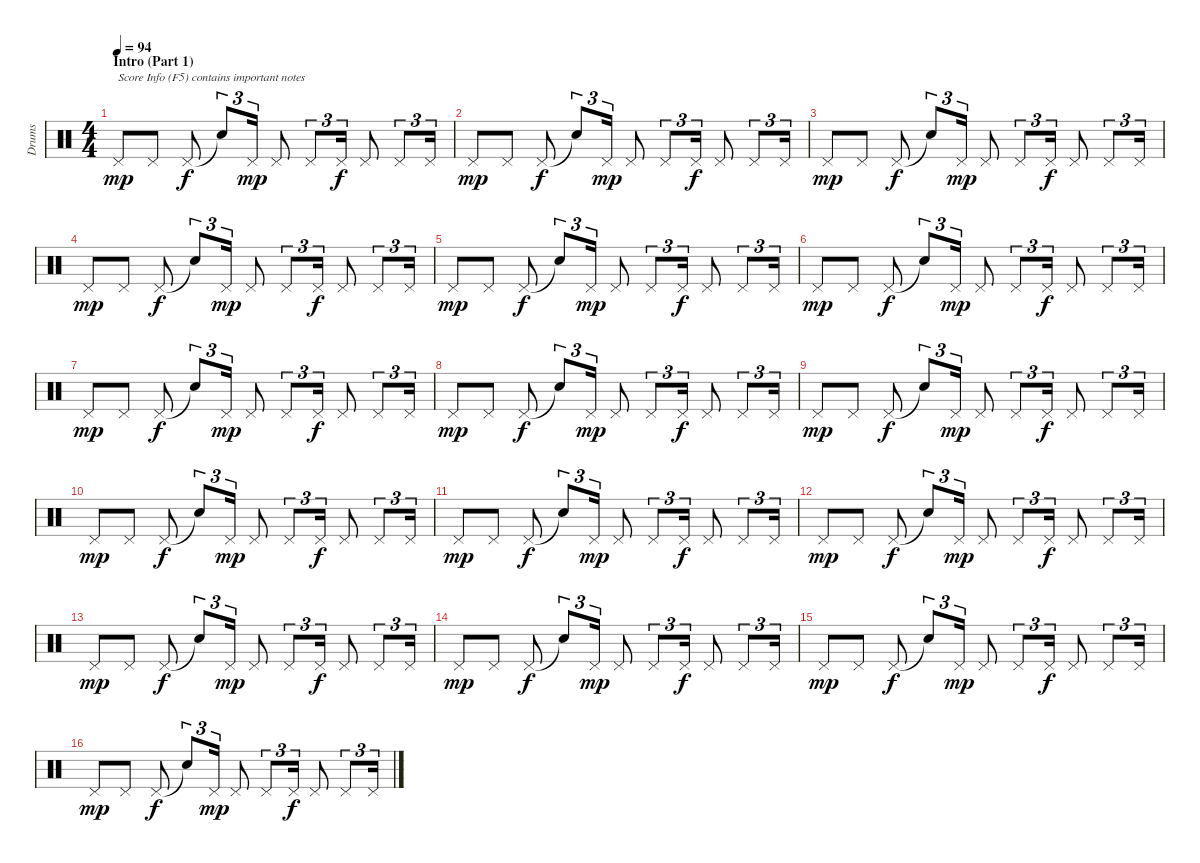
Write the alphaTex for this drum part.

\track ("Drums" "Drums") {instrument percussion}
\staff {score}
\articulation defaults
\ts (4 4)
\section ("" "Intro (Part 1)")
\tempo 94
\clef neutral
\ks c "Pedal Hi-Hat (hit)".8{txt "Score Info (F5) contains important notes" dy mp} "Pedal Hi-Hat (hit)".8 "Pedal Hi-Hat (hit)".8{dy f} "Snare (hit)"{t}.8{tu (3 2)} "Pedal Hi-Hat (hit)".16{tu (3 2) dy mp} "Pedal Hi-Hat (hit)".8 "Pedal Hi-Hat (hit)".8{tu (3 2)} "Pedal Hi-Hat (hit)".16{tu (3 2) dy f} "Pedal Hi-Hat (hit)".8 "Pedal Hi-Hat (hit)".8{tu (3 2)} "Pedal Hi-Hat (hit)".16{tu (3 2)}
|
"Pedal Hi-Hat (hit)".8{dy mp} "Pedal Hi-Hat (hit)".8 "Pedal Hi-Hat (hit)".8{dy f} "Snare (hit)"{t}.8{tu (3 2)} "Pedal Hi-Hat (hit)".16{tu (3 2) dy mp} "Pedal Hi-Hat (hit)".8 "Pedal Hi-Hat (hit)".8{tu (3 2)} "Pedal Hi-Hat (hit)".16{tu (3 2) dy f} "Pedal Hi-Hat (hit)".8 "Pedal Hi-Hat (hit)".8{tu (3 2)} "Pedal Hi-Hat (hit)".16{tu (3 2)} |
"Pedal Hi-Hat (hit)".8{dy mp} "Pedal Hi-Hat (hit)".8 "Pedal Hi-Hat (hit)".8{dy f} "Snare (hit)"{t}.8{tu (3 2)} "Pedal Hi-Hat (hit)".16{tu (3 2) dy mp} "Pedal Hi-Hat (hit)".8 "Pedal Hi-Hat (hit)".8{tu (3 2)} "Pedal Hi-Hat (hit)".16{tu (3 2) dy f} "Pedal Hi-Hat (hit)".8 "Pedal Hi-Hat (hit)".8{tu (3 2)} "Pedal Hi-Hat (hit)".16{tu (3 2)} |
"Pedal Hi-Hat (hit)".8{dy mp} "Pedal Hi-Hat (hit)".8 "Pedal Hi-Hat (hit)".8{dy f} "Snare (hit)"{t}.8{tu (3 2)} "Pedal Hi-Hat (hit)".16{tu (3 2) dy mp} "Pedal Hi-Hat (hit)".8 "Pedal Hi-Hat (hit)".8{tu (3 2)} "Pedal Hi-Hat (hit)".16{tu (3 2) dy f} "Pedal Hi-Hat (hit)".8 "Pedal Hi-Hat (hit)".8{tu (3 2)} "Pedal Hi-Hat (hit)".16{tu (3 2)} |
"Pedal Hi-Hat (hit)".8{dy mp} "Pedal Hi-Hat (hit)".8 "Pedal Hi-Hat (hit)".8{dy f} "Snare (hit)"{t}.8{tu (3 2)} "Pedal Hi-Hat (hit)".16{tu (3 2) dy mp} "Pedal Hi-Hat (hit)".8 "Pedal Hi-Hat (hit)".8{tu (3 2)} "Pedal Hi-Hat (hit)".16{tu (3 2) dy f} "Pedal Hi-Hat (hit)".8 "Pedal Hi-Hat (hit)".8{tu (3 2)} "Pedal Hi-Hat (hit)".16{tu (3 2)} |
"Pedal Hi-Hat (hit)".8{dy mp} "Pedal Hi-Hat (hit)".8 "Pedal Hi-Hat (hit)".8{dy f} "Snare (hit)"{t}.8{tu (3 2)} "Pedal Hi-Hat (hit)".16{tu (3 2) dy mp} "Pedal Hi-Hat (hit)".8 "Pedal Hi-Hat (hit)".8{tu (3 2)} "Pedal Hi-Hat (hit)".16{tu (3 2) dy f} "Pedal Hi-Hat (hit)".8 "Pedal Hi-Hat (hit)".8{tu (3 2)} "Pedal Hi-Hat (hit)".16{tu (3 2)} |
"Pedal Hi-Hat (hit)".8{dy mp} "Pedal Hi-Hat (hit)".8 "Pedal Hi-Hat (hit)".8{dy f} "Snare (hit)"{t}.8{tu (3 2)} "Pedal Hi-Hat (hit)".16{tu (3 2) dy mp} "Pedal Hi-Hat (hit)".8 "Pedal Hi-Hat (hit)".8{tu (3 2)} "Pedal Hi-Hat (hit)".16{tu (3 2) dy f} "Pedal Hi-Hat (hit)".8 "Pedal Hi-Hat (hit)".8{tu (3 2)} "Pedal Hi-Hat (hit)".16{tu (3 2)} |
"Pedal Hi-Hat (hit)".8{dy mp} "Pedal Hi-Hat (hit)".8 "Pedal Hi-Hat (hit)".8{dy f} "Snare (hit)"{t}.8{tu (3 2)} "Pedal Hi-Hat (hit)".16{tu (3 2) dy mp} "Pedal Hi-Hat (hit)".8 "Pedal Hi-Hat (hit)".8{tu (3 2)} "Pedal Hi-Hat (hit)".16{tu (3 2) dy f} "Pedal Hi-Hat (hit)".8 "Pedal Hi-Hat (hit)".8{tu (3 2)} "Pedal Hi-Hat (hit)".16{tu (3 2)} |
"Pedal Hi-Hat (hit)".8{dy mp} "Pedal Hi-Hat (hit)".8 "Pedal Hi-Hat (hit)".8{dy f} "Snare (hit)"{t}.8{tu (3 2)} "Pedal Hi-Hat (hit)".16{tu (3 2) dy mp} "Pedal Hi-Hat (hit)".8 "Pedal Hi-Hat (hit)".8{tu (3 2)} "Pedal Hi-Hat (hit)".16{tu (3 2) dy f} "Pedal Hi-Hat (hit)".8 "Pedal Hi-Hat (hit)".8{tu (3 2)} "Pedal Hi-Hat (hit)".16{tu (3 2)} |
"Pedal Hi-Hat (hit)".8{dy mp} "Pedal Hi-Hat (hit)".8 "Pedal Hi-Hat (hit)".8{dy f} "Snare (hit)"{t}.8{tu (3 2)} "Pedal Hi-Hat (hit)".16{tu (3 2) dy mp} "Pedal Hi-Hat (hit)".8 "Pedal Hi-Hat (hit)".8{tu (3 2)} "Pedal Hi-Hat (hit)".16{tu (3 2) dy f} "Pedal Hi-Hat (hit)".8 "Pedal Hi-Hat (hit)".8{tu (3 2)} "Pedal Hi-Hat (hit)".16{tu (3 2)} |
"Pedal Hi-Hat (hit)".8{dy mp} "Pedal Hi-Hat (hit)".8 "Pedal Hi-Hat (hit)".8{dy f} "Snare (hit)"{t}.8{tu (3 2)} "Pedal Hi-Hat (hit)".16{tu (3 2) dy mp} "Pedal Hi-Hat (hit)".8 "Pedal Hi-Hat (hit)".8{tu (3 2)} "Pedal Hi-Hat (hit)".16{tu (3 2) dy f} "Pedal Hi-Hat (hit)".8 "Pedal Hi-Hat (hit)".8{tu (3 2)} "Pedal Hi-Hat (hit)".16{tu (3 2)} |
"Pedal Hi-Hat (hit)".8{dy mp} "Pedal Hi-Hat (hit)".8 "Pedal Hi-Hat (hit)".8{dy f} "Snare (hit)"{t}.8{tu (3 2)} "Pedal Hi-Hat (hit)".16{tu (3 2) dy mp} "Pedal Hi-Hat (hit)".8 "Pedal Hi-Hat (hit)".8{tu (3 2)} "Pedal Hi-Hat (hit)".16{tu (3 2) dy f} "Pedal Hi-Hat (hit)".8 "Pedal Hi-Hat (hit)".8{tu (3 2)} "Pedal Hi-Hat (hit)".16{tu (3 2)} |
"Pedal Hi-Hat (hit)".8{dy mp} "Pedal Hi-Hat (hit)".8 "Pedal Hi-Hat (hit)".8{dy f} "Snare (hit)"{t}.8{tu (3 2)} "Pedal Hi-Hat (hit)".16{tu (3 2) dy mp} "Pedal Hi-Hat (hit)".8 "Pedal Hi-Hat (hit)".8{tu (3 2)} "Pedal Hi-Hat (hit)".16{tu (3 2) dy f} "Pedal Hi-Hat (hit)".8 "Pedal Hi-Hat (hit)".8{tu (3 2)} "Pedal Hi-Hat (hit)".16{tu (3 2)} |
"Pedal Hi-Hat (hit)".8{dy mp} "Pedal Hi-Hat (hit)".8 "Pedal Hi-Hat (hit)".8{dy f} "Snare (hit)"{t}.8{tu (3 2)} "Pedal Hi-Hat (hit)".16{tu (3 2) dy mp} "Pedal Hi-Hat (hit)".8 "Pedal Hi-Hat (hit)".8{tu (3 2)} "Pedal Hi-Hat (hit)".16{tu (3 2) dy f} "Pedal Hi-Hat (hit)".8 "Pedal Hi-Hat (hit)".8{tu (3 2)} "Pedal Hi-Hat (hit)".16{tu (3 2)} |
"Pedal Hi-Hat (hit)".8{dy mp} "Pedal Hi-Hat (hit)".8 "Pedal Hi-Hat (hit)".8{dy f} "Snare (hit)"{t}.8{tu (3 2)} "Pedal Hi-Hat (hit)".16{tu (3 2) dy mp} "Pedal Hi-Hat (hit)".8 "Pedal Hi-Hat (hit)".8{tu (3 2)} "Pedal Hi-Hat (hit)".16{tu (3 2) dy f} "Pedal Hi-Hat (hit)".8 "Pedal Hi-Hat (hit)".8{tu (3 2)} "Pedal Hi-Hat (hit)".16{tu (3 2)} |
"Pedal Hi-Hat (hit)".8{dy mp} "Pedal Hi-Hat (hit)".8 "Pedal Hi-Hat (hit)".8{dy f} "Snare (hit)"{t}.8{tu (3 2)} "Pedal Hi-Hat (hit)".16{tu (3 2) dy mp} "Pedal Hi-Hat (hit)".8 "Pedal Hi-Hat (hit)".8{tu (3 2)} "Pedal Hi-Hat (hit)".16{tu (3 2) dy f} "Pedal Hi-Hat (hit)".8 "Pedal Hi-Hat (hit)".8{tu (3 2)} "Pedal Hi-Hat (hit)".16{tu (3 2)}
